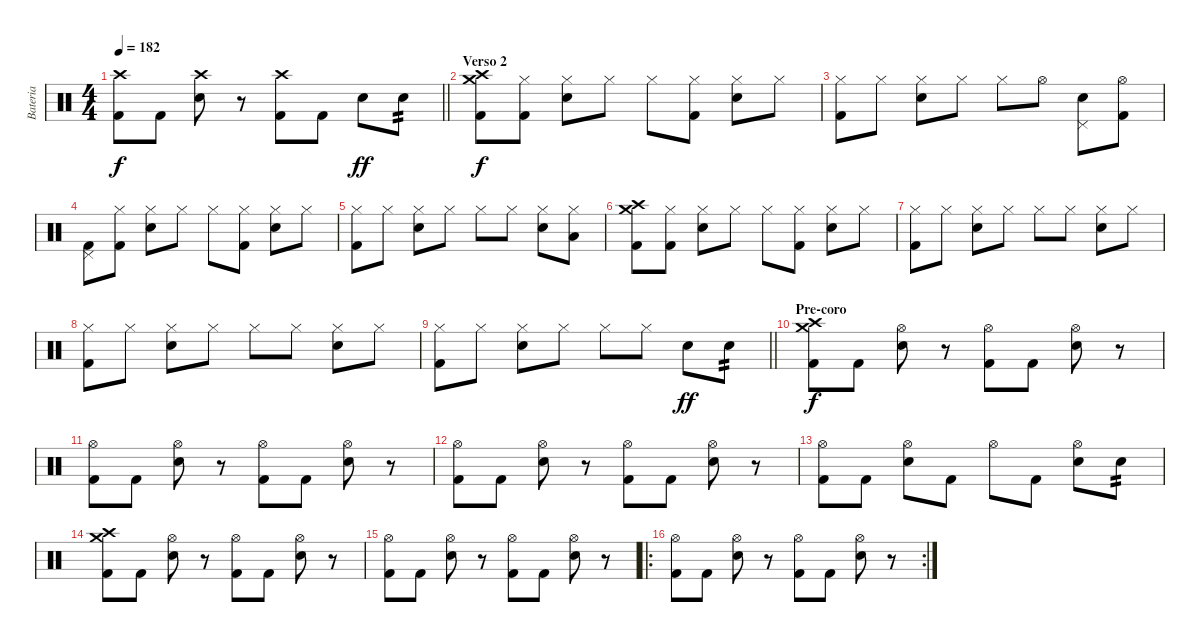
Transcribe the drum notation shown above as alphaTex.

\track ("Bateria" "Bateria") {instrument percussion}
\staff {score}
\articulation defaults
\ts (4 4)
\tempo 182
\clef neutral
\barLineRight lightlight
\ks c
("Crash high (hit)" "Kick (hit) 2").8{dy f} "Kick (hit) 2".8 ("Crash high (hit)" "Electric Snare (hit)").8 r.8 ("Crash high (hit)" "Kick (hit) 2").8 "Kick (hit) 2".8 "Electric Snare (hit)".8{dy ff} "Electric Snare (hit)".8{tp 2} |
\section ("" "Verso 2")
("Crash high (hit)" "Crash medium (hit)" "Kick (hit) 2").8{dy f} ("Hi-Hat (closed)" "Kick (hit) 2").8 ("Hi-Hat (closed)" "Electric Snare (hit)").8 "Hi-Hat (closed)".8 "Hi-Hat (closed)".8 ("Hi-Hat (closed)" "Kick (hit) 2").8 ("Hi-Hat (closed)" "Electric Snare (hit)").8 "Hi-Hat (closed)".8 |
("Hi-Hat (closed)" "Kick (hit) 2").8 "Hi-Hat (closed)".8 ("Hi-Hat (closed)" "Electric Snare (hit)").8 "Hi-Hat (closed)".8 "Hi-Hat (closed)".8 "Hi-Hat (open)".8 ("Pedal Hi-Hat (hit)" "Electric Snare (hit)").8 ("Hi-Hat (open)" "Kick (hit) 2").8 |
("Pedal Hi-Hat (hit)" "Kick (hit) 2").8 ("Hi-Hat (closed)" "Kick (hit) 2").8 ("Hi-Hat (closed)" "Electric Snare (hit)").8 "Hi-Hat (closed)".8 "Hi-Hat (closed)".8 ("Hi-Hat (closed)" "Kick (hit) 2").8 ("Hi-Hat (closed)" "Electric Snare (hit)").8 "Hi-Hat (closed)".8 |
("Hi-Hat (closed)" "Kick (hit) 2").8 "Hi-Hat (closed)".8 ("Hi-Hat (closed)" "Electric Snare (hit)").8 "Hi-Hat (closed)".8 "Hi-Hat (closed)".8 "Hi-Hat (closed)".8 ("Hi-Hat (closed)" "Electric Snare (hit)").8 ("Hi-Hat (closed)" "Low Tom (hit)").8 |
("Crash high (hit)" "Crash medium (hit)" "Kick (hit) 2").8 ("Hi-Hat (closed)" "Kick (hit) 2").8 ("Hi-Hat (closed)" "Electric Snare (hit)").8 "Hi-Hat (closed)".8 "Hi-Hat (closed)".8 ("Hi-Hat (closed)" "Kick (hit) 2").8 ("Hi-Hat (closed)" "Electric Snare (hit)").8 "Hi-Hat (closed)".8 |
("Hi-Hat (closed)" "Kick (hit) 2").8 "Hi-Hat (closed)".8 ("Hi-Hat (closed)" "Electric Snare (hit)").8 "Hi-Hat (closed)".8 "Hi-Hat (closed)".8 "Hi-Hat (closed)".8 ("Hi-Hat (closed)" "Electric Snare (hit)").8 "Hi-Hat (closed)".8 |
("Hi-Hat (closed)" "Kick (hit) 2").8 "Hi-Hat (closed)".8 ("Hi-Hat (closed)" "Electric Snare (hit)").8 "Hi-Hat (closed)".8 "Hi-Hat (closed)".8 "Hi-Hat (closed)".8 ("Hi-Hat (closed)" "Electric Snare (hit)").8 "Hi-Hat (closed)".8 |
\barLineRight lightlight
("Hi-Hat (closed)" "Kick (hit) 2").8 "Hi-Hat (closed)".8 ("Hi-Hat (closed)" "Electric Snare (hit)").8 "Hi-Hat (closed)".8 "Hi-Hat (closed)".8 "Hi-Hat (closed)".8 "Electric Snare (hit)".8{dy ff} "Electric Snare (hit)".8{tp 2} |
\section ("" "Pre-coro")
("Crash high (hit)" "Crash medium (hit)" "Kick (hit) 2").8{dy f} "Kick (hit) 2".8 ("Hi-Hat (open)" "Electric Snare (hit)").8 r.8 ("Hi-Hat (open)" "Kick (hit) 2").8 "Kick (hit) 2".8 ("Hi-Hat (open)" "Electric Snare (hit)").8 r.8 |
("Hi-Hat (open)" "Kick (hit) 2").8 "Kick (hit) 2".8 ("Hi-Hat (open)" "Electric Snare (hit)").8 r.8 ("Hi-Hat (open)" "Kick (hit) 2").8 "Kick (hit) 2".8 ("Hi-Hat (open)" "Electric Snare (hit)").8 r.8 |
("Hi-Hat (open)" "Kick (hit) 2").8 "Kick (hit) 2".8 ("Hi-Hat (open)" "Electric Snare (hit)").8 r.8 ("Hi-Hat (open)" "Kick (hit) 2").8 "Kick (hit) 2".8 ("Hi-Hat (open)" "Electric Snare (hit)").8 r.8 |
("Hi-Hat (open)" "Kick (hit) 2").8 "Kick (hit) 2".8 ("Hi-Hat (open)" "Electric Snare (hit)").8 "Kick (hit) 2".8 "Hi-Hat (open)".8 "Kick (hit) 2".8 ("Hi-Hat (open)" "Electric Snare (hit)").8 "Electric Snare (hit)".8{tp 2} |
("Crash high (hit)" "Crash medium (hit)" "Kick (hit) 2").8 "Kick (hit) 2".8 ("Hi-Hat (open)" "Electric Snare (hit)").8 r.8 ("Hi-Hat (open)" "Kick (hit) 2").8 "Kick (hit) 2".8 ("Hi-Hat (open)" "Electric Snare (hit)").8 r.8 |
("Hi-Hat (open)" "Kick (hit) 2").8 "Kick (hit) 2".8 ("Hi-Hat (open)" "Electric Snare (hit)").8 r.8 ("Hi-Hat (open)" "Kick (hit) 2").8 "Kick (hit) 2".8 ("Hi-Hat (open)" "Electric Snare (hit)").8 r.8 |
\ro
\rc 2
("Hi-Hat (open)" "Kick (hit) 2").8 "Kick (hit) 2".8 ("Hi-Hat (open)" "Electric Snare (hit)").8 r.8 ("Hi-Hat (open)" "Kick (hit) 2").8 "Kick (hit) 2".8 ("Hi-Hat (open)" "Electric Snare (hit)").8 r.8
